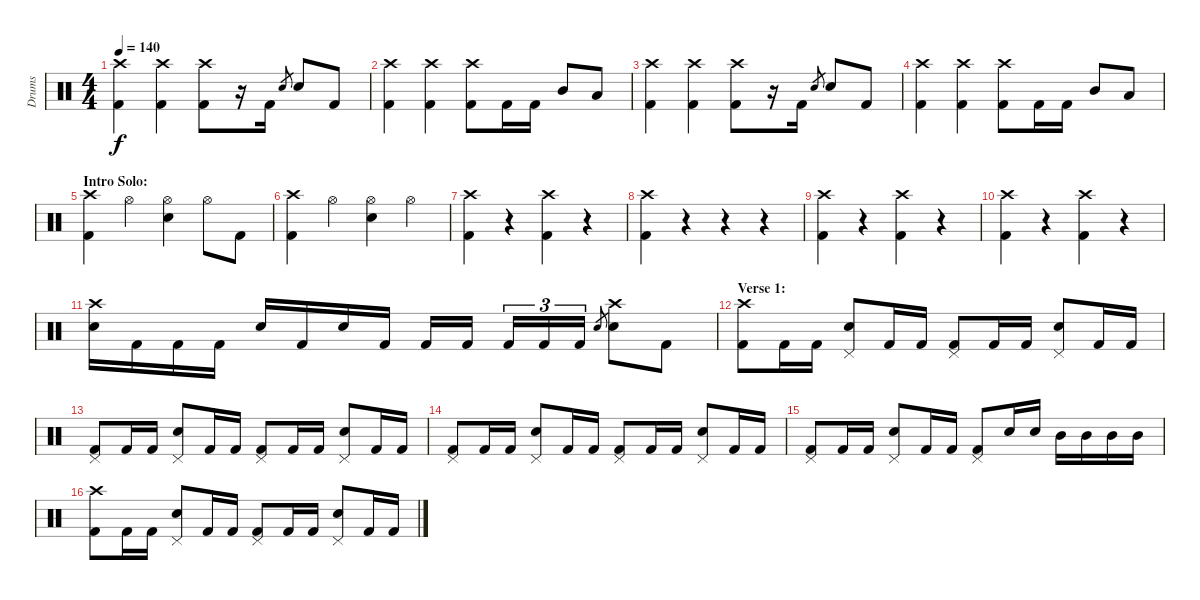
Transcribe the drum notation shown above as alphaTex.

\track ("Drums" "Drums") {instrument percussion}
\staff {score}
\articulation defaults
\ts (4 4)
\tempo 140
\clef neutral
\ks c
("Crash high (hit)" "Kick (hit) 2").4{dy f} ("Crash high (hit)" "Kick (hit) 2").4 ("Crash high (hit)" "Kick (hit) 2").8 r.16 "Kick (hit) 2".16 "Electric Snare (hit)".8{gr} "Electric Snare (hit)".8 "Kick (hit) 2".8 |
("Crash high (hit)" "Kick (hit) 2").4 ("Crash high (hit)" "Kick (hit) 2").4 ("Crash high (hit)" "Kick (hit) 2").8 "Kick (hit) 2".16 "Kick (hit) 2".16 "Mid Tom (hit)".8 "Low Tom (hit)".8 |
("Crash high (hit)" "Kick (hit) 2").4 ("Crash high (hit)" "Kick (hit) 2").4 ("Crash high (hit)" "Kick (hit) 2").8 r.16 "Kick (hit) 2".16 "Electric Snare (hit)".8{gr} "Electric Snare (hit)".8 "Kick (hit) 2".8 |
("Crash high (hit)" "Kick (hit) 2").4 ("Crash high (hit)" "Kick (hit) 2").4 ("Crash high (hit)" "Kick (hit) 2").8 "Kick (hit) 2".16 "Kick (hit) 2".16 "Mid Tom (hit)".8 "Low Tom (hit)".8 |
\section ("" "Intro Solo:")
("Crash high (hit)" "Kick (hit) 2").4 "Hi-Hat (open)".4 ("Hi-Hat (open)" "Electric Snare (hit)").4 "Hi-Hat (open)".8 "Kick (hit) 2".8 |
("Crash high (hit)" "Kick (hit) 2").4 "Hi-Hat (open)".4 ("Hi-Hat (open)" "Electric Snare (hit)").4 "Hi-Hat (open)".4 |
("Crash high (hit)" "Kick (hit) 2").4 r.4 ("Crash high (hit)" "Kick (hit) 2").4 r.4 |
("Crash high (hit)" "Kick (hit) 2").4 r.4 r.4 r.4 |
("Crash high (hit)" "Kick (hit) 2").4 r.4 ("Crash high (hit)" "Kick (hit) 2").4 r.4 |
("Crash high (hit)" "Kick (hit) 2").4 r.4 ("Crash high (hit)" "Kick (hit) 2").4 r.4 |
("Crash high (hit)" "Electric Snare (hit)").16 "Kick (hit) 2".16 "Kick (hit) 2".16 "Kick (hit) 2".16 "Electric Snare (hit)".16 "Kick (hit) 2".16 "Electric Snare (hit)".16 "Kick (hit) 2".16 "Kick (hit) 2".16 "Kick (hit) 2".16 "Kick (hit) 2".16{tu (3 2)} "Kick (hit) 2".16{tu (3 2)} "Kick (hit) 2".16{tu (3 2)} "Electric Snare (hit)".8{gr} ("Crash high (hit)" "Electric Snare (hit)").8 "Kick (hit) 2".8 |
\section ("" "Verse 1:")
("Crash high (hit)" "Kick (hit) 2").8 "Kick (hit) 2".16 "Kick (hit) 2".16 ("Pedal Hi-Hat (hit)" "Electric Snare (hit)").8 "Kick (hit) 2".16 "Kick (hit) 2".16 ("Pedal Hi-Hat (hit)" "Kick (hit) 2").8 "Kick (hit) 2".16 "Kick (hit) 2".16 ("Pedal Hi-Hat (hit)" "Electric Snare (hit)").8 "Kick (hit) 2".16 "Kick (hit) 2".16 |
("Pedal Hi-Hat (hit)" "Kick (hit) 2").8 "Kick (hit) 2".16 "Kick (hit) 2".16 ("Pedal Hi-Hat (hit)" "Electric Snare (hit)").8 "Kick (hit) 2".16 "Kick (hit) 2".16 ("Pedal Hi-Hat (hit)" "Kick (hit) 2").8 "Kick (hit) 2".16 "Kick (hit) 2".16 ("Pedal Hi-Hat (hit)" "Electric Snare (hit)").8 "Kick (hit) 2".16 "Kick (hit) 2".16 |
("Pedal Hi-Hat (hit)" "Kick (hit) 2").8 "Kick (hit) 2".16 "Kick (hit) 2".16 ("Pedal Hi-Hat (hit)" "Electric Snare (hit)").8 "Kick (hit) 2".16 "Kick (hit) 2".16 ("Pedal Hi-Hat (hit)" "Kick (hit) 2").8 "Kick (hit) 2".16 "Kick (hit) 2".16 ("Pedal Hi-Hat (hit)" "Electric Snare (hit)").8 "Kick (hit) 2".16 "Kick (hit) 2".16 |
("Pedal Hi-Hat (hit)" "Kick (hit) 2").8 "Kick (hit) 2".16 "Kick (hit) 2".16 ("Pedal Hi-Hat (hit)" "Electric Snare (hit)").8 "Kick (hit) 2".16 "Kick (hit) 2".16 ("Pedal Hi-Hat (hit)" "Kick (hit) 2").8 "Electric Snare (hit)".16 "Electric Snare (hit)".16 "Mid Tom (hit)".16 "Mid Tom (hit)".16 "Mid Tom (hit)".16 "Mid Tom (hit)".16 |
("Crash high (hit)" "Kick (hit) 2").8 "Kick (hit) 2".16 "Kick (hit) 2".16 ("Pedal Hi-Hat (hit)" "Electric Snare (hit)").8 "Kick (hit) 2".16 "Kick (hit) 2".16 ("Pedal Hi-Hat (hit)" "Kick (hit) 2").8 "Kick (hit) 2".16 "Kick (hit) 2".16 ("Pedal Hi-Hat (hit)" "Electric Snare (hit)").8 "Kick (hit) 2".16 "Kick (hit) 2".16
